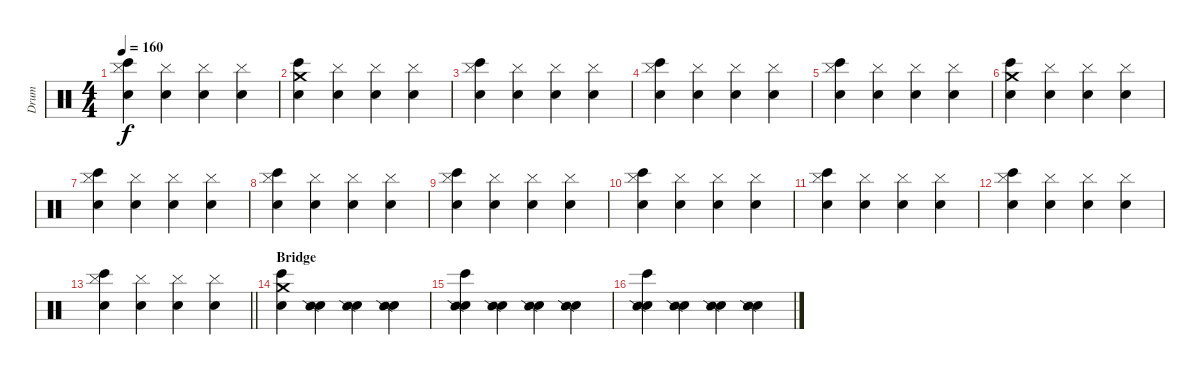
\track ("Drum" "Drum") {instrument percussion}
\staff {score}
\articulation defaults
\ts (4 4)
\tempo 160
\clef neutral
\ks c
("Electric Snare (hit)" "Bongo High (hit)" "Cymbal (hit)").4{dy f} ("Electric Snare (hit)" "Cymbal (hit)").4 ("Electric Snare (hit)" "Cymbal (hit)").4 ("Electric Snare (hit)" "Cymbal (hit)").4 |
("Electric Snare (hit)" "Bongo High (hit)" "Crash medium (hit)").4 ("Electric Snare (hit)" "Cymbal (hit)").4 ("Electric Snare (hit)" "Cymbal (hit)").4 ("Electric Snare (hit)" "Cymbal (hit)").4 |
("Electric Snare (hit)" "Bongo High (hit)" "Cymbal (hit)").4 ("Electric Snare (hit)" "Cymbal (hit)").4 ("Electric Snare (hit)" "Cymbal (hit)").4 ("Electric Snare (hit)" "Cymbal (hit)").4 |
("Electric Snare (hit)" "Bongo High (hit)" "Cymbal (hit)").4 ("Electric Snare (hit)" "Cymbal (hit)").4 ("Electric Snare (hit)" "Cymbal (hit)").4 ("Electric Snare (hit)" "Cymbal (hit)").4 |
("Electric Snare (hit)" "Bongo High (hit)" "Cymbal (hit)").4 ("Electric Snare (hit)" "Cymbal (hit)").4 ("Electric Snare (hit)" "Cymbal (hit)").4 ("Electric Snare (hit)" "Cymbal (hit)").4 |
("Electric Snare (hit)" "Bongo High (hit)" "Crash medium (hit)").4 ("Electric Snare (hit)" "Cymbal (hit)").4 ("Electric Snare (hit)" "Cymbal (hit)").4 ("Electric Snare (hit)" "Cymbal (hit)").4 |
("Electric Snare (hit)" "Bongo High (hit)" "Cymbal (hit)").4 ("Electric Snare (hit)" "Cymbal (hit)").4 ("Electric Snare (hit)" "Cymbal (hit)").4 ("Electric Snare (hit)" "Cymbal (hit)").4 |
("Electric Snare (hit)" "Bongo High (hit)" "Cymbal (hit)").4 ("Electric Snare (hit)" "Cymbal (hit)").4 ("Electric Snare (hit)" "Cymbal (hit)").4 ("Electric Snare (hit)" "Cymbal (hit)").4 |
("Electric Snare (hit)" "Bongo High (hit)" "Cymbal (hit)").4 ("Electric Snare (hit)" "Cymbal (hit)").4 ("Electric Snare (hit)" "Cymbal (hit)").4 ("Electric Snare (hit)" "Cymbal (hit)").4 |
("Electric Snare (hit)" "Bongo High (hit)" "Cymbal (hit)").4 ("Electric Snare (hit)" "Cymbal (hit)").4 ("Electric Snare (hit)" "Cymbal (hit)").4 ("Electric Snare (hit)" "Cymbal (hit)").4 |
("Electric Snare (hit)" "Bongo High (hit)" "Cymbal (hit)").4 ("Electric Snare (hit)" "Cymbal (hit)").4 ("Electric Snare (hit)" "Cymbal (hit)").4 ("Electric Snare (hit)" "Cymbal (hit)").4 |
("Electric Snare (hit)" "Bongo High (hit)" "Cymbal (hit)").4 ("Electric Snare (hit)" "Cymbal (hit)").4 ("Electric Snare (hit)" "Cymbal (hit)").4 ("Electric Snare (hit)" "Cymbal (hit)").4 |
\barLineRight lightlight
("Electric Snare (hit)" "Bongo High (hit)" "Cymbal (hit)").4 ("Electric Snare (hit)" "Cymbal (hit)").4 ("Electric Snare (hit)" "Cymbal (hit)").4 ("Electric Snare (hit)" "Cymbal (hit)").4 |
\section ("" "Bridge")
("Electric Snare (hit)" "Bongo High (hit)" "Crash medium (hit)").4 ("Electric Snare (hit)" "Snare (side stick) 2").4 ("Electric Snare (hit)" "Snare (side stick) 2").4 ("Electric Snare (hit)" "Snare (side stick) 2").4 |
("Electric Snare (hit)" "Bongo High (hit)" "Snare (side stick) 2").4 ("Electric Snare (hit)" "Snare (side stick) 2").4 ("Electric Snare (hit)" "Snare (side stick) 2").4 ("Electric Snare (hit)" "Snare (side stick) 2").4 |
("Electric Snare (hit)" "Bongo High (hit)" "Snare (side stick) 2").4 ("Electric Snare (hit)" "Snare (side stick) 2").4 ("Electric Snare (hit)" "Snare (side stick) 2").4 ("Electric Snare (hit)" "Snare (side stick) 2").4
